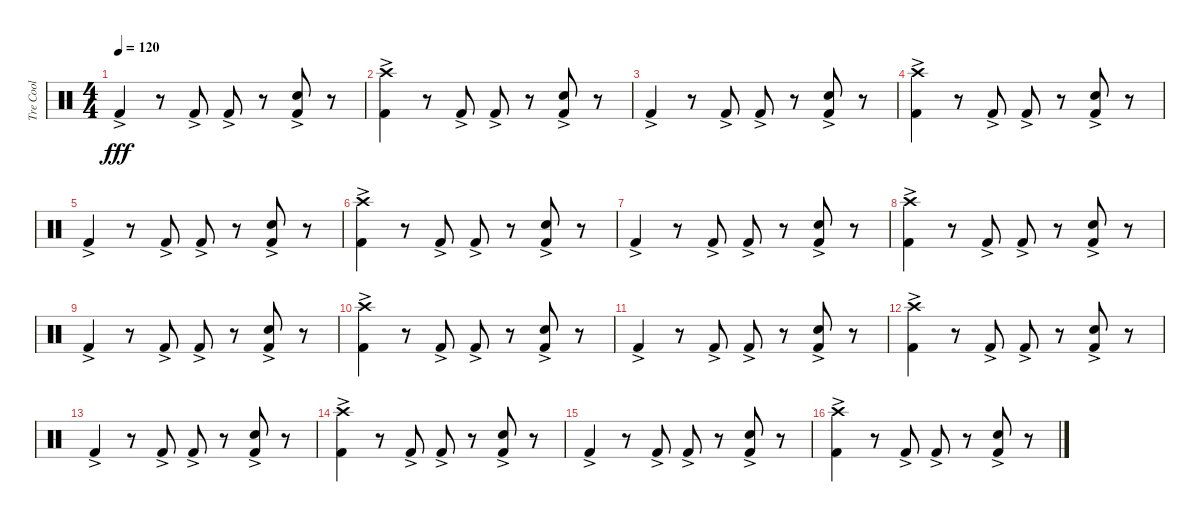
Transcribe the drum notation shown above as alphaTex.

\track ("Tre Cool" "Tre Cool") {instrument percussion}
\staff {score}
\articulation defaults
\ts (4 4)
\tempo 120
\clef neutral
\ks c "Kick (hit) 2"{ac}.4{dy fff}
r.8 "Kick (hit) 2"{ac}.8 "Kick (hit) 2"{ac}.8 r.8 ("Electric Snare (hit)"{ac} "Kick (hit) 2"{ac}).8 r.8 |
("Crash high (hit)" "Kick (hit) 2"{ac}).4 r.8 "Kick (hit) 2"{ac}.8 "Kick (hit) 2"{ac}.8 r.8 ("Electric Snare (hit)"{ac} "Kick (hit) 2"{ac}).8 r.8 |
"Kick (hit) 2"{ac}.4 r.8 "Kick (hit) 2"{ac}.8 "Kick (hit) 2"{ac}.8 r.8 ("Electric Snare (hit)"{ac} "Kick (hit) 2"{ac}).8 r.8 |
("Crash high (hit)" "Kick (hit) 2"{ac}).4 r.8 "Kick (hit) 2"{ac}.8 "Kick (hit) 2"{ac}.8 r.8 ("Electric Snare (hit)"{ac} "Kick (hit) 2"{ac}).8 r.8 |
"Kick (hit) 2"{ac}.4 r.8 "Kick (hit) 2"{ac}.8 "Kick (hit) 2"{ac}.8 r.8 ("Electric Snare (hit)"{ac} "Kick (hit) 2"{ac}).8 r.8 |
("Crash high (hit)" "Kick (hit) 2"{ac}).4 r.8 "Kick (hit) 2"{ac}.8 "Kick (hit) 2"{ac}.8 r.8 ("Electric Snare (hit)"{ac} "Kick (hit) 2"{ac}).8 r.8 |
"Kick (hit) 2"{ac}.4 r.8 "Kick (hit) 2"{ac}.8 "Kick (hit) 2"{ac}.8 r.8 ("Electric Snare (hit)"{ac} "Kick (hit) 2"{ac}).8 r.8 |
("Crash high (hit)" "Kick (hit) 2"{ac}).4 r.8 "Kick (hit) 2"{ac}.8 "Kick (hit) 2"{ac}.8 r.8 ("Electric Snare (hit)"{ac} "Kick (hit) 2"{ac}).8 r.8 |
"Kick (hit) 2"{ac}.4 r.8 "Kick (hit) 2"{ac}.8 "Kick (hit) 2"{ac}.8 r.8 ("Electric Snare (hit)"{ac} "Kick (hit) 2"{ac}).8 r.8 |
("Crash high (hit)" "Kick (hit) 2"{ac}).4 r.8 "Kick (hit) 2"{ac}.8 "Kick (hit) 2"{ac}.8 r.8 ("Electric Snare (hit)"{ac} "Kick (hit) 2"{ac}).8 r.8 |
"Kick (hit) 2"{ac}.4 r.8 "Kick (hit) 2"{ac}.8 "Kick (hit) 2"{ac}.8 r.8 ("Electric Snare (hit)"{ac} "Kick (hit) 2"{ac}).8 r.8 |
("Crash high (hit)" "Kick (hit) 2"{ac}).4 r.8 "Kick (hit) 2"{ac}.8 "Kick (hit) 2"{ac}.8 r.8 ("Electric Snare (hit)"{ac} "Kick (hit) 2"{ac}).8 r.8 |
"Kick (hit) 2"{ac}.4 r.8 "Kick (hit) 2"{ac}.8 "Kick (hit) 2"{ac}.8 r.8 ("Electric Snare (hit)"{ac} "Kick (hit) 2"{ac}).8 r.8 |
("Crash high (hit)" "Kick (hit) 2"{ac}).4 r.8 "Kick (hit) 2"{ac}.8 "Kick (hit) 2"{ac}.8 r.8 ("Electric Snare (hit)"{ac} "Kick (hit) 2"{ac}).8 r.8 |
"Kick (hit) 2"{ac}.4 r.8 "Kick (hit) 2"{ac}.8 "Kick (hit) 2"{ac}.8 r.8 ("Electric Snare (hit)"{ac} "Kick (hit) 2"{ac}).8 r.8 |
("Crash high (hit)" "Kick (hit) 2"{ac}).4 r.8 "Kick (hit) 2"{ac}.8 "Kick (hit) 2"{ac}.8 r.8 ("Electric Snare (hit)"{ac} "Kick (hit) 2"{ac}).8 r.8
